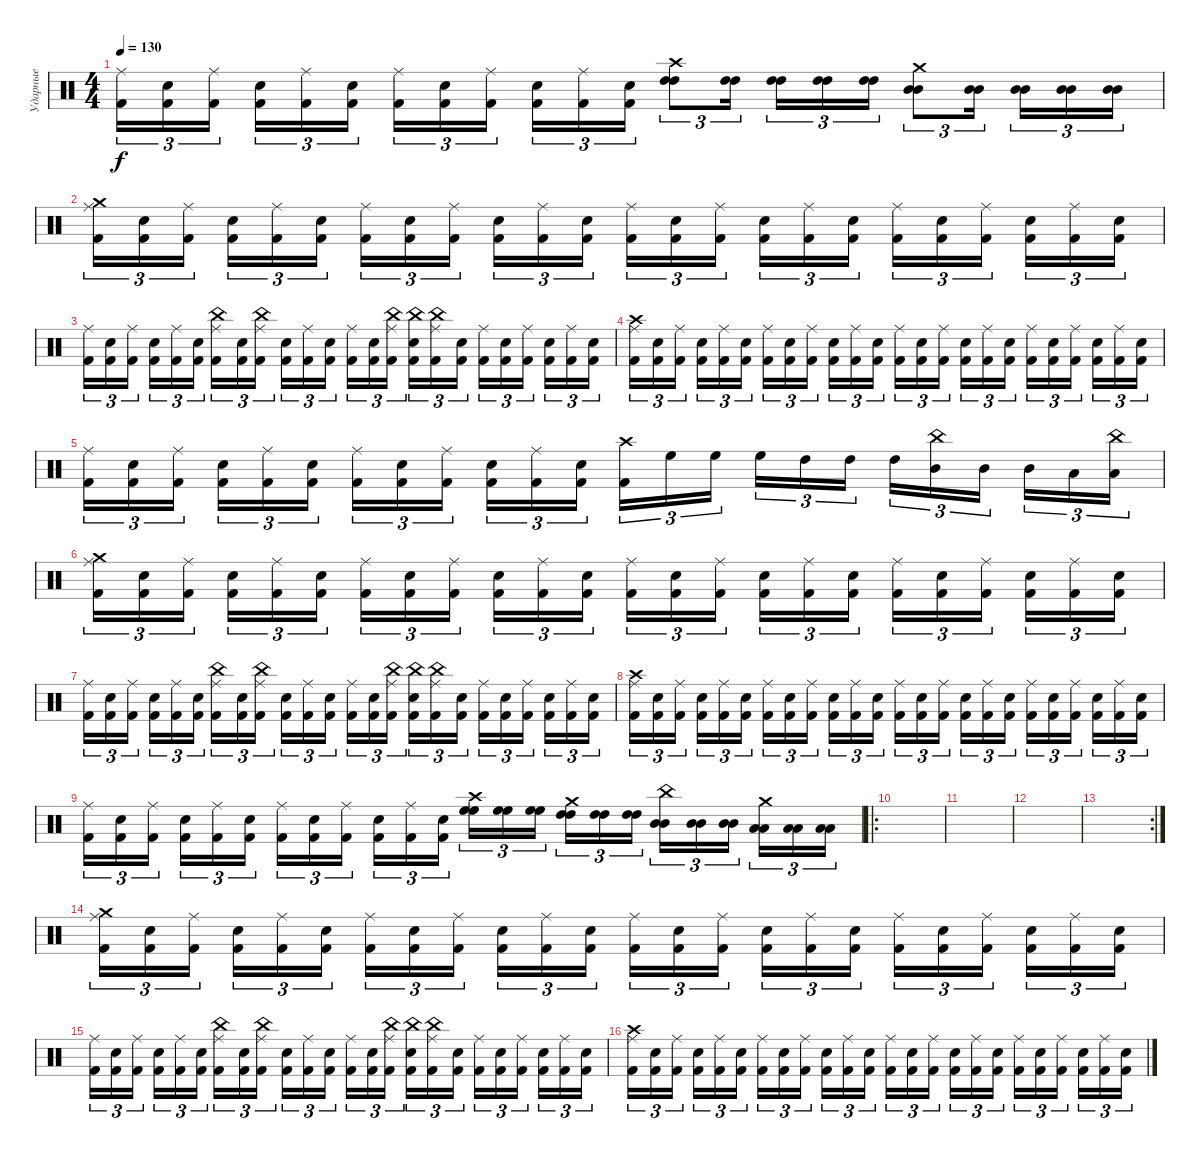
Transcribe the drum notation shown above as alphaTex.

\track ("Ударные" "Ударные") {instrument percussion}
\staff {score}
\articulation defaults
\ts (4 4)
\tempo 130
\clef neutral
\ks c
("Ride (middle)" "Kick (hit) 2").16{tu (3 2) dy f} ("Electric Snare (hit)" "Kick (hit) 2").16{tu (3 2)} ("Ride (middle)" "Kick (hit) 2").16{tu (3 2)} ("Electric Snare (hit)" "Kick (hit) 2").16{tu (3 2)} ("Ride (middle)" "Kick (hit) 2").16{tu (3 2)} ("Electric Snare (hit)" "Kick (hit) 2").16{tu (3 2)} ("Ride (middle)" "Kick (hit) 2").16{tu (3 2)} ("Electric Snare (hit)" "Kick (hit) 2").16{tu (3 2)} ("Ride (middle)" "Kick (hit) 2").16{tu (3 2)} ("Electric Snare (hit)" "Kick (hit) 2").16{tu (3 2)} ("Ride (middle)" "Kick (hit) 2").16{tu (3 2)} ("Electric Snare (hit)" "Kick (hit) 2").16{tu (3 2)} ("Crash high (hit)" "High Tom (hit)" "High Tom (hit)").8{tu (3 2)} ("High Tom (hit)" "High Tom (hit)").16{tu (3 2)} ("High Tom (hit)" "High Tom (hit)").16{tu (3 2)} ("High Tom (hit)" "High Tom (hit)").16{tu (3 2)} ("High Tom (hit)" "High Tom (hit)").16{tu (3 2)} ("Crash medium (hit)" "Mid Tom (hit)" "Mid Tom (hit)").8{tu (3 2)} ("Mid Tom (hit)" "Mid Tom (hit)").16{tu (3 2)} ("Mid Tom (hit)" "Mid Tom (hit)").16{tu (3 2)} ("Mid Tom (hit)" "Mid Tom (hit)").16{tu (3 2)} ("Mid Tom (hit)" "Mid Tom (hit)").16{tu (3 2)} |
("Ride (middle)" "Crash medium (hit)" "Kick (hit) 2").16{tu (3 2)} ("Electric Snare (hit)" "Kick (hit) 2").16{tu (3 2)} ("Ride (middle)" "Kick (hit) 2").16{tu (3 2)} ("Electric Snare (hit)" "Kick (hit) 2").16{tu (3 2)} ("Ride (middle)" "Kick (hit) 2").16{tu (3 2)} ("Electric Snare (hit)" "Kick (hit) 2").16{tu (3 2)} ("Ride (middle)" "Kick (hit) 2").16{tu (3 2)} ("Electric Snare (hit)" "Kick (hit) 2").16{tu (3 2)} ("Ride (middle)" "Kick (hit) 2").16{tu (3 2)} ("Electric Snare (hit)" "Kick (hit) 2").16{tu (3 2)} ("Ride (middle)" "Kick (hit) 2").16{tu (3 2)} ("Electric Snare (hit)" "Kick (hit) 2").16{tu (3 2)} ("Ride (middle)" "Kick (hit) 2").16{tu (3 2)} ("Electric Snare (hit)" "Kick (hit) 2").16{tu (3 2)} ("Ride (middle)" "Kick (hit) 2").16{tu (3 2)} ("Electric Snare (hit)" "Kick (hit) 2").16{tu (3 2)} ("Ride (middle)" "Kick (hit) 2").16{tu (3 2)} ("Electric Snare (hit)" "Kick (hit) 2").16{tu (3 2)} ("Ride (middle)" "Kick (hit) 2").16{tu (3 2)} ("Electric Snare (hit)" "Kick (hit) 2").16{tu (3 2)} ("Ride (middle)" "Kick (hit) 2").16{tu (3 2)} ("Electric Snare (hit)" "Kick (hit) 2").16{tu (3 2)} ("Ride (middle)" "Kick (hit) 2").16{tu (3 2)} ("Electric Snare (hit)" "Kick (hit) 2").16{tu (3 2)} |
("Ride (middle)" "Kick (hit) 2").16{tu (3 2)} ("Electric Snare (hit)" "Kick (hit) 2").16{tu (3 2)} ("Ride (middle)" "Kick (hit) 2").16{tu (3 2)} ("Electric Snare (hit)" "Kick (hit) 2").16{tu (3 2)} ("Ride (middle)" "Kick (hit) 2").16{tu (3 2)} ("Electric Snare (hit)" "Kick (hit) 2").16{tu (3 2)} ("Ride (middle)" "China (hit)" "Kick (hit) 2").16{tu (3 2)} ("Electric Snare (hit)" "Kick (hit) 2").16{tu (3 2)} ("Ride (middle)" "China (hit)" "Kick (hit) 2").16{tu (3 2)} ("Electric Snare (hit)" "Kick (hit) 2").16{tu (3 2)} ("Ride (middle)" "Kick (hit) 2").16{tu (3 2)} ("Electric Snare (hit)" "Kick (hit) 2").16{tu (3 2)} ("Ride (middle)" "Kick (hit) 2").16{tu (3 2)} ("Electric Snare (hit)" "Kick (hit) 2").16{tu (3 2)} ("Ride (middle)" "China (hit)" "Kick (hit) 2").16{tu (3 2)} ("China (hit)" "Electric Snare (hit)" "Kick (hit) 2").16{tu (3 2)} ("Ride (middle)" "China (hit)" "Kick (hit) 2").16{tu (3 2)} ("Electric Snare (hit)" "Kick (hit) 2").16{tu (3 2)} ("Ride (middle)" "Kick (hit) 2").16{tu (3 2)} ("Electric Snare (hit)" "Kick (hit) 2").16{tu (3 2)} ("Ride (middle)" "Kick (hit) 2").16{tu (3 2)} ("Electric Snare (hit)" "Kick (hit) 2").16{tu (3 2)} ("Ride (middle)" "Kick (hit) 2").16{tu (3 2)} ("Electric Snare (hit)" "Kick (hit) 2").16{tu (3 2)} |
("Ride (middle)" "Crash high (hit)" "Kick (hit) 2").16{tu (3 2)} ("Electric Snare (hit)" "Kick (hit) 2").16{tu (3 2)} ("Ride (middle)" "Kick (hit) 2").16{tu (3 2)} ("Electric Snare (hit)" "Kick (hit) 2").16{tu (3 2)} ("Ride (middle)" "Kick (hit) 2").16{tu (3 2)} ("Electric Snare (hit)" "Kick (hit) 2").16{tu (3 2)} ("Ride (middle)" "Kick (hit) 2").16{tu (3 2)} ("Electric Snare (hit)" "Kick (hit) 2").16{tu (3 2)} ("Ride (middle)" "Kick (hit) 2").16{tu (3 2)} ("Electric Snare (hit)" "Kick (hit) 2").16{tu (3 2)} ("Ride (middle)" "Kick (hit) 2").16{tu (3 2)} ("Electric Snare (hit)" "Kick (hit) 2").16{tu (3 2)} ("Ride (middle)" "Kick (hit) 2").16{tu (3 2)} ("Electric Snare (hit)" "Kick (hit) 2").16{tu (3 2)} ("Ride (middle)" "Kick (hit) 2").16{tu (3 2)} ("Electric Snare (hit)" "Kick (hit) 2").16{tu (3 2)} ("Ride (middle)" "Kick (hit) 2").16{tu (3 2)} ("Electric Snare (hit)" "Kick (hit) 2").16{tu (3 2)} ("Ride (middle)" "Kick (hit) 2").16{tu (3 2)} ("Electric Snare (hit)" "Kick (hit) 2").16{tu (3 2)} ("Ride (middle)" "Kick (hit) 2").16{tu (3 2)} ("Electric Snare (hit)" "Kick (hit) 2").16{tu (3 2)} ("Ride (middle)" "Kick (hit) 2").16{tu (3 2)} ("Electric Snare (hit)" "Kick (hit) 2").16{tu (3 2)} |
("Ride (middle)" "Kick (hit) 2").16{tu (3 2)} ("Electric Snare (hit)" "Kick (hit) 2").16{tu (3 2)} ("Ride (middle)" "Kick (hit) 2").16{tu (3 2)} ("Electric Snare (hit)" "Kick (hit) 2").16{tu (3 2)} ("Ride (middle)" "Kick (hit) 2").16{tu (3 2)} ("Electric Snare (hit)" "Kick (hit) 2").16{tu (3 2)} ("Ride (middle)" "Kick (hit) 2").16{tu (3 2)} ("Electric Snare (hit)" "Kick (hit) 2").16{tu (3 2)} ("Ride (middle)" "Kick (hit) 2").16{tu (3 2)} ("Electric Snare (hit)" "Kick (hit) 2").16{tu (3 2)} ("Ride (middle)" "Kick (hit) 2").16{tu (3 2)} ("Electric Snare (hit)" "Kick (hit) 2").16{tu (3 2)} ("Crash high (hit)" "Kick (hit) 2").16{tu (3 2)} "High Floor Tom (hit)".16{tu (3 2)} "High Floor Tom (hit)".16{tu (3 2)} "High Floor Tom (hit)".16{tu (3 2)} "High Tom (hit)".16{tu (3 2)} "High Tom (hit)".16{tu (3 2)} "High Tom (hit)".16{tu (3 2)} ("Mid Tom (hit)" "China (hit)").16{tu (3 2)} "Mid Tom (hit)".16{tu (3 2)} "Mid Tom (hit)".16{tu (3 2)} "Low Tom (hit)".16{tu (3 2)} ("Low Tom (hit)" "China (hit)").16{tu (3 2)} |
("Ride (middle)" "Crash medium (hit)" "Kick (hit) 2").16{tu (3 2)} ("Electric Snare (hit)" "Kick (hit) 2").16{tu (3 2)} ("Ride (middle)" "Kick (hit) 2").16{tu (3 2)} ("Electric Snare (hit)" "Kick (hit) 2").16{tu (3 2)} ("Ride (middle)" "Kick (hit) 2").16{tu (3 2)} ("Electric Snare (hit)" "Kick (hit) 2").16{tu (3 2)} ("Ride (middle)" "Kick (hit) 2").16{tu (3 2)} ("Electric Snare (hit)" "Kick (hit) 2").16{tu (3 2)} ("Ride (middle)" "Kick (hit) 2").16{tu (3 2)} ("Electric Snare (hit)" "Kick (hit) 2").16{tu (3 2)} ("Ride (middle)" "Kick (hit) 2").16{tu (3 2)} ("Electric Snare (hit)" "Kick (hit) 2").16{tu (3 2)} ("Ride (middle)" "Kick (hit) 2").16{tu (3 2)} ("Electric Snare (hit)" "Kick (hit) 2").16{tu (3 2)} ("Ride (middle)" "Kick (hit) 2").16{tu (3 2)} ("Electric Snare (hit)" "Kick (hit) 2").16{tu (3 2)} ("Ride (middle)" "Kick (hit) 2").16{tu (3 2)} ("Electric Snare (hit)" "Kick (hit) 2").16{tu (3 2)} ("Ride (middle)" "Kick (hit) 2").16{tu (3 2)} ("Electric Snare (hit)" "Kick (hit) 2").16{tu (3 2)} ("Ride (middle)" "Kick (hit) 2").16{tu (3 2)} ("Electric Snare (hit)" "Kick (hit) 2").16{tu (3 2)} ("Ride (middle)" "Kick (hit) 2").16{tu (3 2)} ("Electric Snare (hit)" "Kick (hit) 2").16{tu (3 2)} |
("Ride (middle)" "Kick (hit) 2").16{tu (3 2)} ("Electric Snare (hit)" "Kick (hit) 2").16{tu (3 2)} ("Ride (middle)" "Kick (hit) 2").16{tu (3 2)} ("Electric Snare (hit)" "Kick (hit) 2").16{tu (3 2)} ("Ride (middle)" "Kick (hit) 2").16{tu (3 2)} ("Electric Snare (hit)" "Kick (hit) 2").16{tu (3 2)} ("Ride (middle)" "China (hit)" "Kick (hit) 2").16{tu (3 2)} ("Electric Snare (hit)" "Kick (hit) 2").16{tu (3 2)} ("Ride (middle)" "China (hit)" "Kick (hit) 2").16{tu (3 2)} ("Electric Snare (hit)" "Kick (hit) 2").16{tu (3 2)} ("Ride (middle)" "Kick (hit) 2").16{tu (3 2)} ("Electric Snare (hit)" "Kick (hit) 2").16{tu (3 2)} ("Ride (middle)" "Kick (hit) 2").16{tu (3 2)} ("Electric Snare (hit)" "Kick (hit) 2").16{tu (3 2)} ("Ride (middle)" "China (hit)" "Kick (hit) 2").16{tu (3 2)} ("China (hit)" "Electric Snare (hit)" "Kick (hit) 2").16{tu (3 2)} ("Ride (middle)" "China (hit)" "Kick (hit) 2").16{tu (3 2)} ("Electric Snare (hit)" "Kick (hit) 2").16{tu (3 2)} ("Ride (middle)" "Kick (hit) 2").16{tu (3 2)} ("Electric Snare (hit)" "Kick (hit) 2").16{tu (3 2)} ("Ride (middle)" "Kick (hit) 2").16{tu (3 2)} ("Electric Snare (hit)" "Kick (hit) 2").16{tu (3 2)} ("Ride (middle)" "Kick (hit) 2").16{tu (3 2)} ("Electric Snare (hit)" "Kick (hit) 2").16{tu (3 2)} |
("Ride (middle)" "Crash high (hit)" "Kick (hit) 2").16{tu (3 2)} ("Electric Snare (hit)" "Kick (hit) 2").16{tu (3 2)} ("Ride (middle)" "Kick (hit) 2").16{tu (3 2)} ("Electric Snare (hit)" "Kick (hit) 2").16{tu (3 2)} ("Ride (middle)" "Kick (hit) 2").16{tu (3 2)} ("Electric Snare (hit)" "Kick (hit) 2").16{tu (3 2)} ("Ride (middle)" "Kick (hit) 2").16{tu (3 2)} ("Electric Snare (hit)" "Kick (hit) 2").16{tu (3 2)} ("Ride (middle)" "Kick (hit) 2").16{tu (3 2)} ("Electric Snare (hit)" "Kick (hit) 2").16{tu (3 2)} ("Ride (middle)" "Kick (hit) 2").16{tu (3 2)} ("Electric Snare (hit)" "Kick (hit) 2").16{tu (3 2)} ("Ride (middle)" "Kick (hit) 2").16{tu (3 2)} ("Electric Snare (hit)" "Kick (hit) 2").16{tu (3 2)} ("Ride (middle)" "Kick (hit) 2").16{tu (3 2)} ("Electric Snare (hit)" "Kick (hit) 2").16{tu (3 2)} ("Ride (middle)" "Kick (hit) 2").16{tu (3 2)} ("Electric Snare (hit)" "Kick (hit) 2").16{tu (3 2)} ("Ride (middle)" "Kick (hit) 2").16{tu (3 2)} ("Electric Snare (hit)" "Kick (hit) 2").16{tu (3 2)} ("Ride (middle)" "Kick (hit) 2").16{tu (3 2)} ("Electric Snare (hit)" "Kick (hit) 2").16{tu (3 2)} ("Ride (middle)" "Kick (hit) 2").16{tu (3 2)} ("Electric Snare (hit)" "Kick (hit) 2").16{tu (3 2)} |
("Ride (middle)" "Kick (hit) 2").16{tu (3 2)} ("Electric Snare (hit)" "Kick (hit) 2").16{tu (3 2)} ("Ride (middle)" "Kick (hit) 2").16{tu (3 2)} ("Electric Snare (hit)" "Kick (hit) 2").16{tu (3 2)} ("Ride (middle)" "Kick (hit) 2").16{tu (3 2)} ("Electric Snare (hit)" "Kick (hit) 2").16{tu (3 2)} ("Ride (middle)" "Kick (hit) 2").16{tu (3 2)} ("Electric Snare (hit)" "Kick (hit) 2").16{tu (3 2)} ("Ride (middle)" "Kick (hit) 2").16{tu (3 2)} ("Electric Snare (hit)" "Kick (hit) 2").16{tu (3 2)} ("Ride (middle)" "Kick (hit) 2").16{tu (3 2)} ("Electric Snare (hit)" "Kick (hit) 2").16{tu (3 2)} ("Crash high (hit)" "High Floor Tom (hit)" "High Floor Tom (hit)").16{tu (3 2)} ("High Floor Tom (hit)" "High Floor Tom (hit)").16{tu (3 2)} ("High Floor Tom (hit)" "High Floor Tom (hit)").16{tu (3 2)} ("Crash medium (hit)" "High Tom (hit)" "High Tom (hit)").16{tu (3 2)} ("High Tom (hit)" "High Tom (hit)").16{tu (3 2)} ("High Tom (hit)" "High Tom (hit)").16{tu (3 2)} ("China (hit)" "Mid Tom (hit)" "Mid Tom (hit)").16{tu (3 2)} ("Mid Tom (hit)" "Mid Tom (hit)").16{tu (3 2)} ("Mid Tom (hit)" "Mid Tom (hit)").16{tu (3 2)} ("Crash medium (hit)" "Low Tom (hit)" "Low Tom (hit)").16{tu (3 2)} ("Low Tom (hit)" "Low Tom (hit)").16{tu (3 2)} ("Low Tom (hit)" "Low Tom (hit)").16{tu (3 2)} |
\ro
|
|
|
\rc 2
|
("Ride (middle)" "Crash medium (hit)" "Kick (hit) 2").16{tu (3 2)} ("Electric Snare (hit)" "Kick (hit) 2").16{tu (3 2)} ("Ride (middle)" "Kick (hit) 2").16{tu (3 2)} ("Electric Snare (hit)" "Kick (hit) 2").16{tu (3 2)} ("Ride (middle)" "Kick (hit) 2").16{tu (3 2)} ("Electric Snare (hit)" "Kick (hit) 2").16{tu (3 2)} ("Ride (middle)" "Kick (hit) 2").16{tu (3 2)} ("Electric Snare (hit)" "Kick (hit) 2").16{tu (3 2)} ("Ride (middle)" "Kick (hit) 2").16{tu (3 2)} ("Electric Snare (hit)" "Kick (hit) 2").16{tu (3 2)} ("Ride (middle)" "Kick (hit) 2").16{tu (3 2)} ("Electric Snare (hit)" "Kick (hit) 2").16{tu (3 2)} ("Ride (middle)" "Kick (hit) 2").16{tu (3 2)} ("Electric Snare (hit)" "Kick (hit) 2").16{tu (3 2)} ("Ride (middle)" "Kick (hit) 2").16{tu (3 2)} ("Electric Snare (hit)" "Kick (hit) 2").16{tu (3 2)} ("Ride (middle)" "Kick (hit) 2").16{tu (3 2)} ("Electric Snare (hit)" "Kick (hit) 2").16{tu (3 2)} ("Ride (middle)" "Kick (hit) 2").16{tu (3 2)} ("Electric Snare (hit)" "Kick (hit) 2").16{tu (3 2)} ("Ride (middle)" "Kick (hit) 2").16{tu (3 2)} ("Electric Snare (hit)" "Kick (hit) 2").16{tu (3 2)} ("Ride (middle)" "Kick (hit) 2").16{tu (3 2)} ("Electric Snare (hit)" "Kick (hit) 2").16{tu (3 2)} |
("Ride (middle)" "Kick (hit) 2").16{tu (3 2)} ("Electric Snare (hit)" "Kick (hit) 2").16{tu (3 2)} ("Ride (middle)" "Kick (hit) 2").16{tu (3 2)} ("Electric Snare (hit)" "Kick (hit) 2").16{tu (3 2)} ("Ride (middle)" "Kick (hit) 2").16{tu (3 2)} ("Electric Snare (hit)" "Kick (hit) 2").16{tu (3 2)} ("Ride (middle)" "China (hit)" "Kick (hit) 2").16{tu (3 2)} ("Electric Snare (hit)" "Kick (hit) 2").16{tu (3 2)} ("Ride (middle)" "China (hit)" "Kick (hit) 2").16{tu (3 2)} ("Electric Snare (hit)" "Kick (hit) 2").16{tu (3 2)} ("Ride (middle)" "Kick (hit) 2").16{tu (3 2)} ("Electric Snare (hit)" "Kick (hit) 2").16{tu (3 2)} ("Ride (middle)" "Kick (hit) 2").16{tu (3 2)} ("Electric Snare (hit)" "Kick (hit) 2").16{tu (3 2)} ("Ride (middle)" "China (hit)" "Kick (hit) 2").16{tu (3 2)} ("China (hit)" "Electric Snare (hit)" "Kick (hit) 2").16{tu (3 2)} ("Ride (middle)" "China (hit)" "Kick (hit) 2").16{tu (3 2)} ("Electric Snare (hit)" "Kick (hit) 2").16{tu (3 2)} ("Ride (middle)" "Kick (hit) 2").16{tu (3 2)} ("Electric Snare (hit)" "Kick (hit) 2").16{tu (3 2)} ("Ride (middle)" "Kick (hit) 2").16{tu (3 2)} ("Electric Snare (hit)" "Kick (hit) 2").16{tu (3 2)} ("Ride (middle)" "Kick (hit) 2").16{tu (3 2)} ("Electric Snare (hit)" "Kick (hit) 2").16{tu (3 2)} |
("Ride (middle)" "Crash high (hit)" "Kick (hit) 2").16{tu (3 2)} ("Electric Snare (hit)" "Kick (hit) 2").16{tu (3 2)} ("Ride (middle)" "Kick (hit) 2").16{tu (3 2)} ("Electric Snare (hit)" "Kick (hit) 2").16{tu (3 2)} ("Ride (middle)" "Kick (hit) 2").16{tu (3 2)} ("Electric Snare (hit)" "Kick (hit) 2").16{tu (3 2)} ("Ride (middle)" "Kick (hit) 2").16{tu (3 2)} ("Electric Snare (hit)" "Kick (hit) 2").16{tu (3 2)} ("Ride (middle)" "Kick (hit) 2").16{tu (3 2)} ("Electric Snare (hit)" "Kick (hit) 2").16{tu (3 2)} ("Ride (middle)" "Kick (hit) 2").16{tu (3 2)} ("Electric Snare (hit)" "Kick (hit) 2").16{tu (3 2)} ("Ride (middle)" "Kick (hit) 2").16{tu (3 2)} ("Electric Snare (hit)" "Kick (hit) 2").16{tu (3 2)} ("Ride (middle)" "Kick (hit) 2").16{tu (3 2)} ("Electric Snare (hit)" "Kick (hit) 2").16{tu (3 2)} ("Ride (middle)" "Kick (hit) 2").16{tu (3 2)} ("Electric Snare (hit)" "Kick (hit) 2").16{tu (3 2)} ("Ride (middle)" "Kick (hit) 2").16{tu (3 2)} ("Electric Snare (hit)" "Kick (hit) 2").16{tu (3 2)} ("Ride (middle)" "Kick (hit) 2").16{tu (3 2)} ("Electric Snare (hit)" "Kick (hit) 2").16{tu (3 2)} ("Ride (middle)" "Kick (hit) 2").16{tu (3 2)} ("Electric Snare (hit)" "Kick (hit) 2").16{tu (3 2)}
